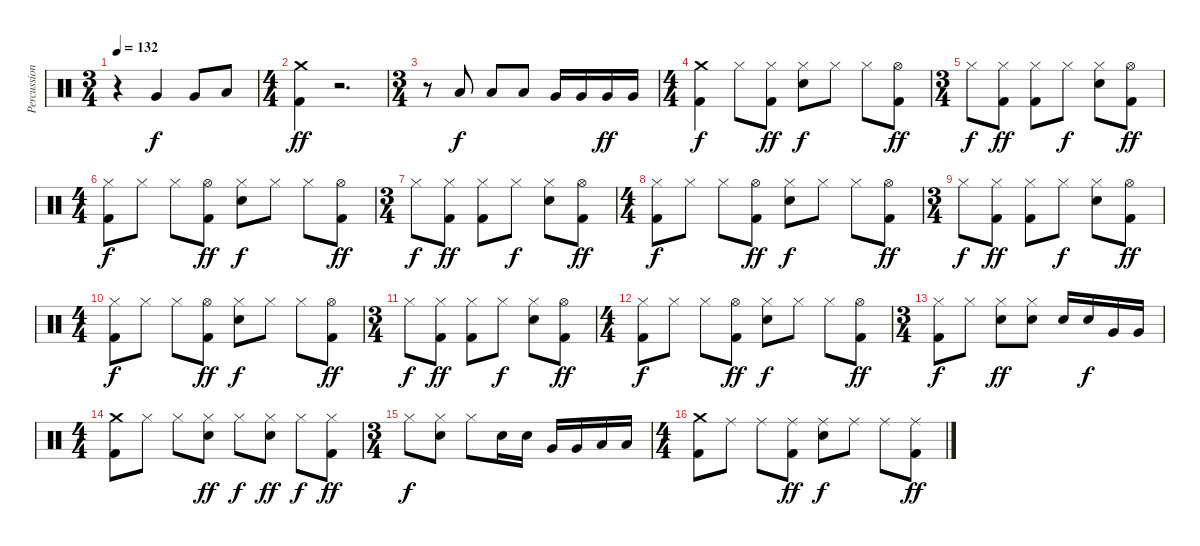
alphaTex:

\track ("Percussion" "Percussion") {instrument percussion}
\staff {score}
\articulation defaults
\ts (3 4)
\tempo 132
\clef neutral
\ks c
r.4{dy ff} "Very Low Tom (hit)".4{dy f} "Very Low Tom (hit)".8 "Low Floor Tom (hit)".8 |
\ts (4 4)
("Kick (hit) 2" "Crash medium (hit)").4{dy ff} r.2{d} |
\ts (3 4)
r.8 "Low Tom (hit)".8{dy f} "Low Tom (hit)".8 "Low Tom (hit)".8 "Very Low Tom (hit)".16 "Very Low Tom (hit)".16 "Very Low Tom (hit)".16{dy ff} "Very Low Tom (hit)".16 |
\ts (4 4)
("Kick (hit) 2" "Crash medium (hit)").4{dy f} "Hi-Hat (closed)".8 ("Kick (hit) 2" "Hi-Hat (closed)").8{dy ff} ("Snare (hit) 2" "Hi-Hat (closed)").8{dy f} "Hi-Hat (closed)".8 "Hi-Hat (closed)".8 ("Kick (hit) 2" "Hi-Hat (open)").8{dy ff} |
\ts (3 4)
"Hi-Hat (closed)".8{dy f} ("Kick (hit) 2" "Hi-Hat (closed)").8{dy ff} ("Kick (hit) 2" "Hi-Hat (closed)").8 "Hi-Hat (closed)".8{dy f} ("Snare (hit) 2" "Hi-Hat (closed)").8 ("Kick (hit) 2" "Hi-Hat (open)").8{dy ff} |
\ts (4 4)
("Kick (hit) 2" "Hi-Hat (closed)").8{dy f} "Hi-Hat (closed)".8 "Hi-Hat (closed)".8 ("Kick (hit) 2" "Hi-Hat (open)").8{dy ff} ("Snare (hit) 2" "Hi-Hat (closed)").8{dy f} "Hi-Hat (closed)".8 "Hi-Hat (closed)".8 ("Kick (hit) 2" "Hi-Hat (open)").8{dy ff} |
\ts (3 4)
"Hi-Hat (closed)".8{dy f} ("Kick (hit) 2" "Hi-Hat (closed)").8{dy ff} ("Kick (hit) 2" "Hi-Hat (closed)").8 "Hi-Hat (closed)".8{dy f} ("Snare (hit) 2" "Hi-Hat (closed)").8 ("Kick (hit) 2" "Hi-Hat (open)").8{dy ff} |
\ts (4 4)
("Kick (hit) 2" "Hi-Hat (closed)").8{dy f} "Hi-Hat (closed)".8 "Hi-Hat (closed)".8 ("Kick (hit) 2" "Hi-Hat (open)").8{dy ff} ("Snare (hit) 2" "Hi-Hat (closed)").8{dy f} "Hi-Hat (closed)".8 "Hi-Hat (closed)".8 ("Kick (hit) 2" "Hi-Hat (open)").8{dy ff} |
\ts (3 4)
"Hi-Hat (closed)".8{dy f} ("Kick (hit) 2" "Hi-Hat (closed)").8{dy ff} ("Kick (hit) 2" "Hi-Hat (closed)").8 "Hi-Hat (closed)".8{dy f} ("Snare (hit) 2" "Hi-Hat (closed)").8 ("Kick (hit) 2" "Hi-Hat (open)").8{dy ff} |
\ts (4 4)
("Kick (hit) 2" "Hi-Hat (closed)").8{dy f} "Hi-Hat (closed)".8 "Hi-Hat (closed)".8 ("Kick (hit) 2" "Hi-Hat (open)").8{dy ff} ("Snare (hit) 2" "Hi-Hat (closed)").8{dy f} "Hi-Hat (closed)".8 "Hi-Hat (closed)".8 ("Kick (hit) 2" "Hi-Hat (open)").8{dy ff} |
\ts (3 4)
"Hi-Hat (closed)".8{dy f} ("Kick (hit) 2" "Hi-Hat (closed)").8{dy ff} ("Kick (hit) 2" "Hi-Hat (closed)").8 "Hi-Hat (closed)".8{dy f} ("Snare (hit) 2" "Hi-Hat (closed)").8 ("Kick (hit) 2" "Hi-Hat (open)").8{dy ff} |
\ts (4 4)
("Kick (hit) 2" "Hi-Hat (closed)").8{dy f} "Hi-Hat (closed)".8 "Hi-Hat (closed)".8 ("Kick (hit) 2" "Hi-Hat (open)").8{dy ff} ("Snare (hit) 2" "Hi-Hat (closed)").8{dy f} "Hi-Hat (closed)".8 "Hi-Hat (closed)".8 ("Kick (hit) 2" "Hi-Hat (open)").8{dy ff} |
\ts (3 4)
("Kick (hit) 2" "Hi-Hat (closed)").8{dy f} "Hi-Hat (closed)".8 ("Snare (hit) 2" "Hi-Hat (closed)").8{dy ff} ("Snare (hit) 2" "Hi-Hat (closed)").8 "Snare (hit) 2".16 "Snare (hit) 2".16{dy f} "Very Low Tom (hit)".16 "Very Low Tom (hit)".16 |
\ts (4 4)
("Kick (hit) 2" "Crash medium (hit)").8 "Hi-Hat (closed)".8 "Hi-Hat (closed)".8 ("Snare (hit) 2" "Hi-Hat (closed)").8{dy ff} "Hi-Hat (closed)".8{dy f} ("Snare (hit) 2" "Hi-Hat (closed)").8{dy ff} "Hi-Hat (closed)".8{dy f} ("Kick (hit) 2" "Hi-Hat (closed)").8{dy ff} |
\ts (3 4)
"Hi-Hat (closed)".8{dy f} ("Snare (hit) 2" "Hi-Hat (closed)").8 "Hi-Hat (closed)".8 "Snare (hit) 2".16 "Snare (hit) 2".16 "Very Low Tom (hit)".16 "Very Low Tom (hit)".16 "Low Floor Tom (hit)".16 "Low Floor Tom (hit)".16 |
\ts (4 4)
("Kick (hit) 2" "Crash medium (hit)").8 "Ride (middle)".8 "Ride (middle)".8 ("Kick (hit) 2" "Ride (middle)").8{dy ff} ("Snare (hit) 2" "Ride (middle)").8{dy f} "Ride (middle)".8 "Ride (middle)".8 ("Kick (hit) 2" "Ride (middle)").8{dy ff}
